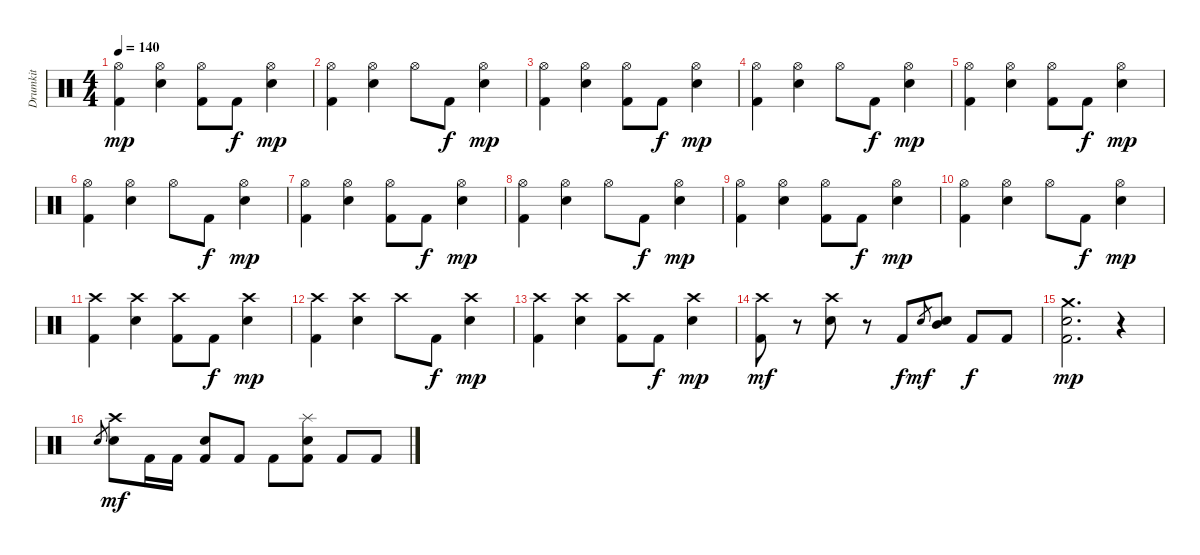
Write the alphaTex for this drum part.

\track ("Drumkit" "Drumkit") {instrument percussion}
\staff {score}
\articulation defaults
\ts (4 4)
\tempo 140
\clef neutral
\ks c
("Hi-Hat (open)" "Kick (hit) 2").4{dy mp} ("Hi-Hat (open)" "Snare (hit) 2").4 ("Hi-Hat (open)" "Kick (hit) 2").8 "Kick (hit) 2".8{dy f} ("Hi-Hat (open)" "Snare (hit) 2").4{dy mp} |
("Hi-Hat (open)" "Kick (hit) 2").4 ("Hi-Hat (open)" "Snare (hit) 2").4 "Hi-Hat (open)".8 "Kick (hit) 2".8{dy f} ("Hi-Hat (open)" "Snare (hit) 2").4{dy mp} |
("Hi-Hat (open)" "Kick (hit) 2").4 ("Hi-Hat (open)" "Snare (hit) 2").4 ("Hi-Hat (open)" "Kick (hit) 2").8 "Kick (hit) 2".8{dy f} ("Hi-Hat (open)" "Snare (hit) 2").4{dy mp} |
("Hi-Hat (open)" "Kick (hit) 2").4 ("Hi-Hat (open)" "Snare (hit) 2").4 "Hi-Hat (open)".8 "Kick (hit) 2".8{dy f} ("Hi-Hat (open)" "Snare (hit) 2").4{dy mp} |
("Hi-Hat (open)" "Kick (hit) 2").4 ("Hi-Hat (open)" "Snare (hit) 2").4 ("Hi-Hat (open)" "Kick (hit) 2").8 "Kick (hit) 2".8{dy f} ("Hi-Hat (open)" "Snare (hit) 2").4{dy mp} |
("Hi-Hat (open)" "Kick (hit) 2").4 ("Hi-Hat (open)" "Snare (hit) 2").4 "Hi-Hat (open)".8 "Kick (hit) 2".8{dy f} ("Hi-Hat (open)" "Snare (hit) 2").4{dy mp} |
("Hi-Hat (open)" "Kick (hit) 2").4 ("Hi-Hat (open)" "Snare (hit) 2").4 ("Hi-Hat (open)" "Kick (hit) 2").8 "Kick (hit) 2".8{dy f} ("Hi-Hat (open)" "Snare (hit) 2").4{dy mp} |
("Hi-Hat (open)" "Kick (hit) 2").4 ("Hi-Hat (open)" "Snare (hit) 2").4 "Hi-Hat (open)".8 "Kick (hit) 2".8{dy f} ("Hi-Hat (open)" "Snare (hit) 2").4{dy mp} |
("Hi-Hat (open)" "Kick (hit) 2").4 ("Hi-Hat (open)" "Snare (hit) 2").4 ("Hi-Hat (open)" "Kick (hit) 2").8 "Kick (hit) 2".8{dy f} ("Hi-Hat (open)" "Snare (hit) 2").4{dy mp} |
("Hi-Hat (open)" "Kick (hit) 2").4 ("Hi-Hat (open)" "Snare (hit) 2").4 "Hi-Hat (open)".8 "Kick (hit) 2".8{dy f} ("Hi-Hat (open)" "Snare (hit) 2").4{dy mp} |
("Crash high (hit)" "Kick (hit) 2").4 ("Crash high (hit)" "Snare (hit) 2").4 ("Crash high (hit)" "Kick (hit) 2").8 "Kick (hit) 2".8{dy f} ("Crash high (hit)" "Snare (hit) 2").4{dy mp} |
("Crash high (hit)" "Kick (hit) 2").4 ("Crash high (hit)" "Snare (hit) 2").4 "Crash high (hit)".8 "Kick (hit) 2".8{dy f} ("Crash high (hit)" "Snare (hit) 2").4{dy mp} |
("Crash high (hit)" "Kick (hit) 2").4 ("Crash high (hit)" "Snare (hit) 2").4 ("Crash high (hit)" "Kick (hit) 2").8 "Kick (hit) 2".8{dy f} ("Crash high (hit)" "Snare (hit) 2").4{dy mp} |
("Crash high (hit)" "Kick (hit) 2").8{dy mf} r.8 ("Crash high (hit)" "Snare (hit) 2").8 r.8 "Kick (hit) 2".8{dy f} "Snare (hit)".8{gr dy mf} ("Mid Tom (hit)" "Snare (hit) 2").8 "Kick (hit) 2".8{dy f} "Kick (hit) 2".8 |
("Crash medium (hit)" "Snare (hit) 2" "Kick (hit) 2").2{d dy mp} r.4 |
"Snare (hit)".8{gr} ("Crash high (hit)" "Snare (hit) 2").8{dy mf} "Kick (hit) 2".16 "Kick (hit) 2".16 ("Snare (hit) 2" "Kick (hit) 2").8 "Kick (hit) 2".8 "Kick (hit) 2".8 ("Splash (hit)" "Snare (hit) 2" "Kick (hit) 2").8 "Kick (hit) 2".8 "Kick (hit) 2".8
